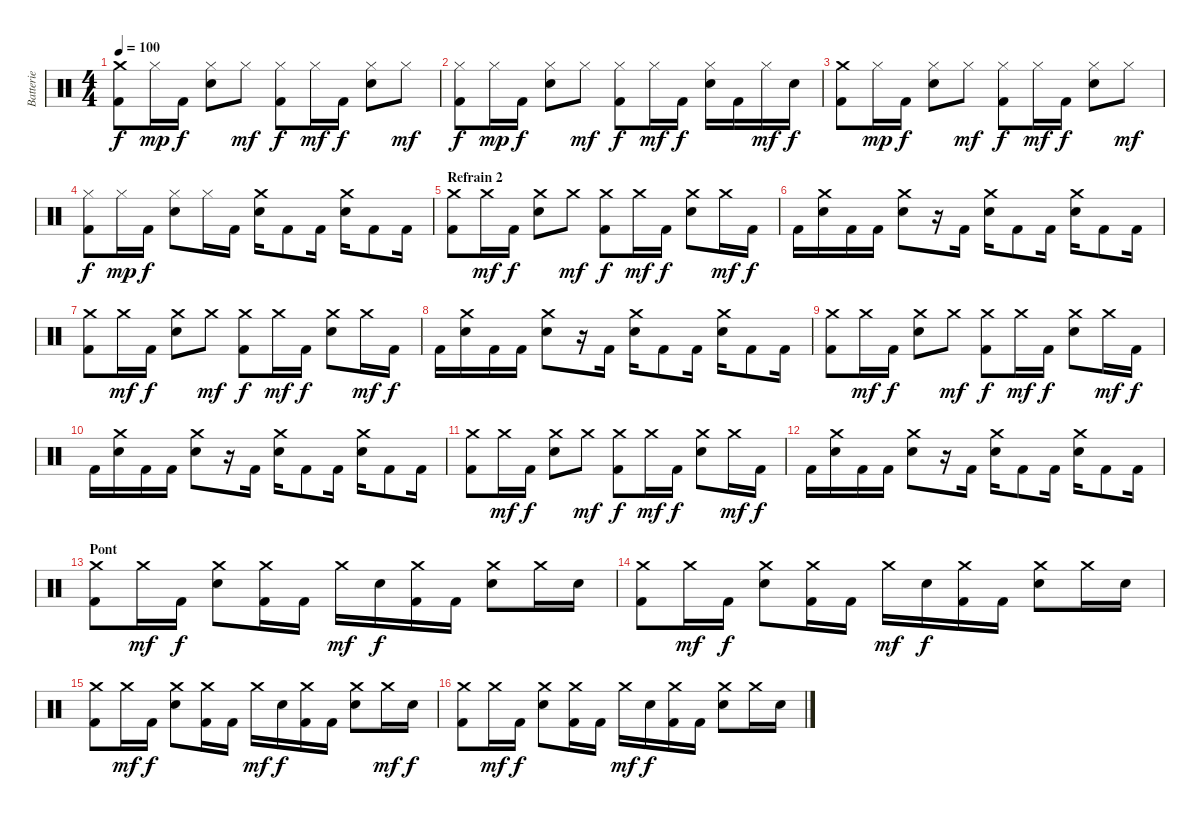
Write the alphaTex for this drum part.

\track ("Batterie" "Batterie") {instrument percussion}
\staff {score}
\articulation defaults
\ts (4 4)
\tempo 100
\clef neutral
\ks c
("Crash medium (hit)" "Kick (hit) 2").8{dy f} "Hi-Hat (closed)".16{dy mp} "Kick (hit) 2".16{dy f} ("Hi-Hat (closed)" "Electric Snare (hit)").8 "Hi-Hat (closed)".8{dy mf} ("Hi-Hat (closed)" "Kick (hit) 2").8{dy f} "Hi-Hat (closed)".16{dy mf} "Kick (hit) 2".16{dy f} ("Hi-Hat (closed)" "Electric Snare (hit)").8 "Hi-Hat (closed)".8{dy mf} |
("Hi-Hat (closed)" "Kick (hit) 2").8{dy f} "Hi-Hat (closed)".16{dy mp} "Kick (hit) 2".16{dy f} ("Hi-Hat (closed)" "Electric Snare (hit)").8 "Hi-Hat (closed)".8{dy mf} ("Hi-Hat (closed)" "Kick (hit) 2").8{dy f} "Hi-Hat (closed)".16{dy mf} "Kick (hit) 2".16{dy f} ("Hi-Hat (closed)" "Electric Snare (hit)").16 "Kick (hit) 2".16 "Hi-Hat (closed)".16{dy mf} "Electric Snare (hit)".16{dy f} |
("Crash medium (hit)" "Kick (hit) 2").8 "Hi-Hat (closed)".16{dy mp} "Kick (hit) 2".16{dy f} ("Hi-Hat (closed)" "Electric Snare (hit)").8 "Hi-Hat (closed)".8{dy mf} ("Hi-Hat (closed)" "Kick (hit) 2").8{dy f} "Hi-Hat (closed)".16{dy mf} "Kick (hit) 2".16{dy f} ("Hi-Hat (closed)" "Electric Snare (hit)").8 "Hi-Hat (closed)".8{dy mf} |
("Hi-Hat (closed)" "Kick (hit) 2").8{dy f} "Hi-Hat (closed)".16{dy mp} "Kick (hit) 2".16{dy f} ("Hi-Hat (closed)" "Electric Snare (hit)").8 "Hi-Hat (closed)".16 "Kick (hit) 2".16 ("Crash medium (hit)" "Electric Snare (hit)").16 "Kick (hit) 2".8 "Kick (hit) 2".16 ("Crash medium (hit)" "Electric Snare (hit)").16 "Kick (hit) 2".8 "Kick (hit) 2".16 |
\section ("" "Refrain 2")
("Crash medium (hit)" "Kick (hit) 2").8 "Crash medium (hit)".16{dy mf} "Kick (hit) 2".16{dy f} ("Crash medium (hit)" "Electric Snare (hit)").8 "Crash medium (hit)".8{dy mf} ("Crash medium (hit)" "Kick (hit) 2").8{dy f} "Crash medium (hit)".16{dy mf} "Kick (hit) 2".16{dy f} ("Crash medium (hit)" "Electric Snare (hit)").8 "Crash medium (hit)".16{dy mf} "Kick (hit) 2".16{dy f} |
"Kick (hit) 2".16 ("Crash medium (hit)" "Electric Snare (hit)").16 "Kick (hit) 2".16 "Kick (hit) 2".16 ("Crash medium (hit)" "Electric Snare (hit)").8 r.16 "Kick (hit) 2".16 ("Crash medium (hit)" "Electric Snare (hit)").16 "Kick (hit) 2".8 "Kick (hit) 2".16 ("Crash medium (hit)" "Electric Snare (hit)").16 "Kick (hit) 2".8 "Kick (hit) 2".16 |
("Crash medium (hit)" "Kick (hit) 2").8 "Crash medium (hit)".16{dy mf} "Kick (hit) 2".16{dy f} ("Crash medium (hit)" "Electric Snare (hit)").8 "Crash medium (hit)".8{dy mf} ("Crash medium (hit)" "Kick (hit) 2").8{dy f} "Crash medium (hit)".16{dy mf} "Kick (hit) 2".16{dy f} ("Crash medium (hit)" "Electric Snare (hit)").8 "Crash medium (hit)".16{dy mf} "Kick (hit) 2".16{dy f} |
"Kick (hit) 2".16 ("Crash medium (hit)" "Electric Snare (hit)").16 "Kick (hit) 2".16 "Kick (hit) 2".16 ("Crash medium (hit)" "Electric Snare (hit)").8 r.16 "Kick (hit) 2".16 ("Crash medium (hit)" "Electric Snare (hit)").16 "Kick (hit) 2".8 "Kick (hit) 2".16 ("Crash medium (hit)" "Electric Snare (hit)").16 "Kick (hit) 2".8 "Kick (hit) 2".16 |
("Crash medium (hit)" "Kick (hit) 2").8 "Crash medium (hit)".16{dy mf} "Kick (hit) 2".16{dy f} ("Crash medium (hit)" "Electric Snare (hit)").8 "Crash medium (hit)".8{dy mf} ("Crash medium (hit)" "Kick (hit) 2").8{dy f} "Crash medium (hit)".16{dy mf} "Kick (hit) 2".16{dy f} ("Crash medium (hit)" "Electric Snare (hit)").8 "Crash medium (hit)".16{dy mf} "Kick (hit) 2".16{dy f} |
"Kick (hit) 2".16 ("Crash medium (hit)" "Electric Snare (hit)").16 "Kick (hit) 2".16 "Kick (hit) 2".16 ("Crash medium (hit)" "Electric Snare (hit)").8 r.16 "Kick (hit) 2".16 ("Crash medium (hit)" "Electric Snare (hit)").16 "Kick (hit) 2".8 "Kick (hit) 2".16 ("Crash medium (hit)" "Electric Snare (hit)").16 "Kick (hit) 2".8 "Kick (hit) 2".16 |
("Crash medium (hit)" "Kick (hit) 2").8 "Crash medium (hit)".16{dy mf} "Kick (hit) 2".16{dy f} ("Crash medium (hit)" "Electric Snare (hit)").8 "Crash medium (hit)".8{dy mf} ("Crash medium (hit)" "Kick (hit) 2").8{dy f} "Crash medium (hit)".16{dy mf} "Kick (hit) 2".16{dy f} ("Crash medium (hit)" "Electric Snare (hit)").8 "Crash medium (hit)".16{dy mf} "Kick (hit) 2".16{dy f} |
"Kick (hit) 2".16 ("Crash medium (hit)" "Electric Snare (hit)").16 "Kick (hit) 2".16 "Kick (hit) 2".16 ("Crash medium (hit)" "Electric Snare (hit)").8 r.16 "Kick (hit) 2".16 ("Crash medium (hit)" "Electric Snare (hit)").16 "Kick (hit) 2".8 "Kick (hit) 2".16 ("Crash medium (hit)" "Electric Snare (hit)").16 "Kick (hit) 2".8 "Kick (hit) 2".16 |
\section ("" "Pont")
("Crash medium (hit)" "Kick (hit) 2").8 "Crash medium (hit)".16{dy mf} "Kick (hit) 2".16{dy f} ("Crash medium (hit)" "Electric Snare (hit)").8 ("Crash medium (hit)" "Kick (hit) 2").16 "Kick (hit) 2".16 "Crash medium (hit)".16{dy mf} "Electric Snare (hit)".16{dy f} ("Crash medium (hit)" "Kick (hit) 2").16 "Kick (hit) 2".16 ("Crash medium (hit)" "Electric Snare (hit)").8 "Crash medium (hit)".16 "Electric Snare (hit)".16 |
("Crash medium (hit)" "Kick (hit) 2").8 "Crash medium (hit)".16{dy mf} "Kick (hit) 2".16{dy f} ("Crash medium (hit)" "Electric Snare (hit)").8 ("Crash medium (hit)" "Kick (hit) 2").16 "Kick (hit) 2".16 "Crash medium (hit)".16{dy mf} "Electric Snare (hit)".16{dy f} ("Crash medium (hit)" "Kick (hit) 2").16 "Kick (hit) 2".16 ("Crash medium (hit)" "Electric Snare (hit)").8 "Crash medium (hit)".16 "Electric Snare (hit)".16 |
("Crash medium (hit)" "Kick (hit) 2").8 "Crash medium (hit)".16{dy mf} "Kick (hit) 2".16{dy f} ("Crash medium (hit)" "Electric Snare (hit)").8 ("Crash medium (hit)" "Kick (hit) 2").16 "Kick (hit) 2".16 "Crash medium (hit)".16{dy mf} "Electric Snare (hit)".16{dy f} ("Crash medium (hit)" "Kick (hit) 2").16 "Kick (hit) 2".16 ("Crash medium (hit)" "Electric Snare (hit)").8 "Crash medium (hit)".16{dy mf} "Electric Snare (hit)".16{dy f} |
("Crash medium (hit)" "Kick (hit) 2").8 "Crash medium (hit)".16{dy mf} "Kick (hit) 2".16{dy f} ("Crash medium (hit)" "Electric Snare (hit)").8 ("Crash medium (hit)" "Kick (hit) 2").16 "Kick (hit) 2".16 "Crash medium (hit)".16{dy mf} "Electric Snare (hit)".16{dy f} ("Crash medium (hit)" "Kick (hit) 2").16 "Kick (hit) 2".16 ("Crash medium (hit)" "Electric Snare (hit)").8 "Crash medium (hit)".16 "Electric Snare (hit)".16
